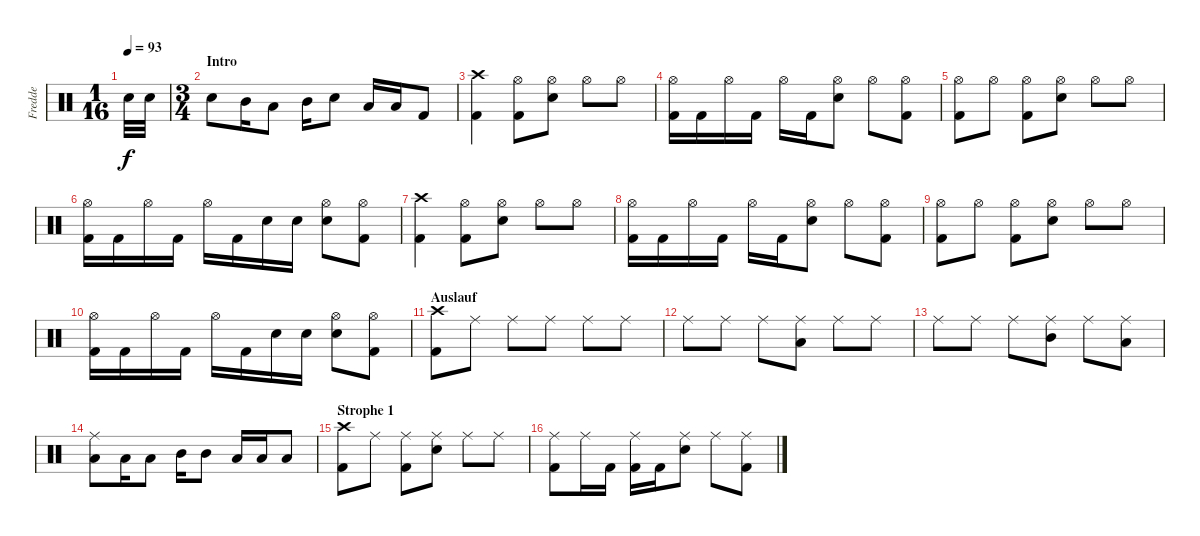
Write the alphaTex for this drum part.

\track ("Fredde" "Fredde") {instrument percussion}
\staff {score}
\articulation defaults
\ts (1 16)
\tempo 93
\clef neutral
\ks c "Snare (hit) 2".32{dy f} "Snare (hit) 2".32
|
\ts (3 4)
\section ("" "Intro")
"Snare (hit) 2".8 "Mid Tom (hit)".16 "Low Tom (hit)".8 "Mid Tom (hit)".16 "Snare (hit) 2".8 "Low Tom (hit)".16 "Low Tom (hit)".16 "Kick (hit) 2".8 |
("Crash high (hit)" "Kick (hit) 2").4 ("Hi-Hat (open)" "Kick (hit) 2").8 ("Hi-Hat (open)" "Snare (hit) 2").8 "Hi-Hat (open)".8 "Hi-Hat (open)".8 |
("Hi-Hat (open)" "Kick (hit) 2").16 "Kick (hit) 2".16 "Hi-Hat (open)".16 "Kick (hit) 2".16 "Hi-Hat (open)".16 "Kick (hit) 2".16 ("Hi-Hat (open)" "Snare (hit) 2").8 "Hi-Hat (open)".8 ("Hi-Hat (open)" "Kick (hit) 2").8 |
("Hi-Hat (open)" "Kick (hit) 2").8 "Hi-Hat (open)".8 ("Hi-Hat (open)" "Kick (hit) 2").8 ("Hi-Hat (open)" "Snare (hit) 2").8 "Hi-Hat (open)".8 "Hi-Hat (open)".8 |
("Hi-Hat (open)" "Kick (hit) 2").16 "Kick (hit) 2".16 "Hi-Hat (open)".16 "Kick (hit) 2".16 "Hi-Hat (open)".16 "Kick (hit) 2".16 "Snare (hit) 2".16 "Snare (hit) 2".16 ("Hi-Hat (open)" "Snare (hit) 2").8 ("Hi-Hat (open)" "Kick (hit) 2").8 |
("Crash high (hit)" "Kick (hit) 2").4 ("Hi-Hat (open)" "Kick (hit) 2").8 ("Hi-Hat (open)" "Snare (hit) 2").8 "Hi-Hat (open)".8 "Hi-Hat (open)".8 |
("Hi-Hat (open)" "Kick (hit) 2").16 "Kick (hit) 2".16 "Hi-Hat (open)".16 "Kick (hit) 2".16 "Hi-Hat (open)".16 "Kick (hit) 2".16 ("Hi-Hat (open)" "Snare (hit) 2").8 "Hi-Hat (open)".8 ("Hi-Hat (open)" "Kick (hit) 2").8 |
("Hi-Hat (open)" "Kick (hit) 2").8 "Hi-Hat (open)".8 ("Hi-Hat (open)" "Kick (hit) 2").8 ("Hi-Hat (open)" "Snare (hit) 2").8 "Hi-Hat (open)".8 "Hi-Hat (open)".8 |
("Hi-Hat (open)" "Kick (hit) 2").16 "Kick (hit) 2".16 "Hi-Hat (open)".16 "Kick (hit) 2".16 "Hi-Hat (open)".16 "Kick (hit) 2".16 "Snare (hit) 2".16 "Snare (hit) 2".16 ("Hi-Hat (open)" "Snare (hit) 2").8 ("Hi-Hat (open)" "Kick (hit) 2").8 |
\section ("" "Auslauf")
("Crash high (hit)" "Kick (hit) 2").8 "Ride (middle)".8 "Ride (middle)".8 "Ride (middle)".8 "Ride (middle)".8 "Ride (middle)".8 |
"Ride (middle)".8 "Ride (middle)".8 "Ride (middle)".8 ("Ride (middle)" "Low Tom (hit)").8 "Ride (middle)".8 "Ride (middle)".8 |
"Ride (middle)".8 "Ride (middle)".8 "Ride (middle)".8 ("Ride (middle)" "Mid Tom (hit)").8 "Ride (middle)".8 ("Ride (middle)" "Low Floor Tom (hit)").8 |
("Ride (middle)" "Low Tom (hit)").8 "Low Tom (hit)".16 "Low Tom (hit)".8 "Mid Tom (hit)".16 "Mid Tom (hit)".8 "Low Tom (hit)".16 "Low Tom (hit)".16 "Low Floor Tom (hit)".8 |
\section ("" "Strophe 1")
("Crash high (hit)" "Kick (hit) 2").8 "Ride (middle)".8 ("Ride (middle)" "Kick (hit) 2").8 ("Ride (middle)" "Snare (hit) 2").8 "Ride (middle)".8 "Ride (middle)".8 |
("Ride (middle)" "Kick (hit) 2").8 "Ride (middle)".16 "Kick (hit) 2".16 ("Ride (middle)" "Kick (hit) 2").16 "Kick (hit) 2".16 ("Ride (middle)" "Snare (hit) 2").8 "Ride (middle)".8 ("Ride (middle)" "Kick (hit) 2").8
